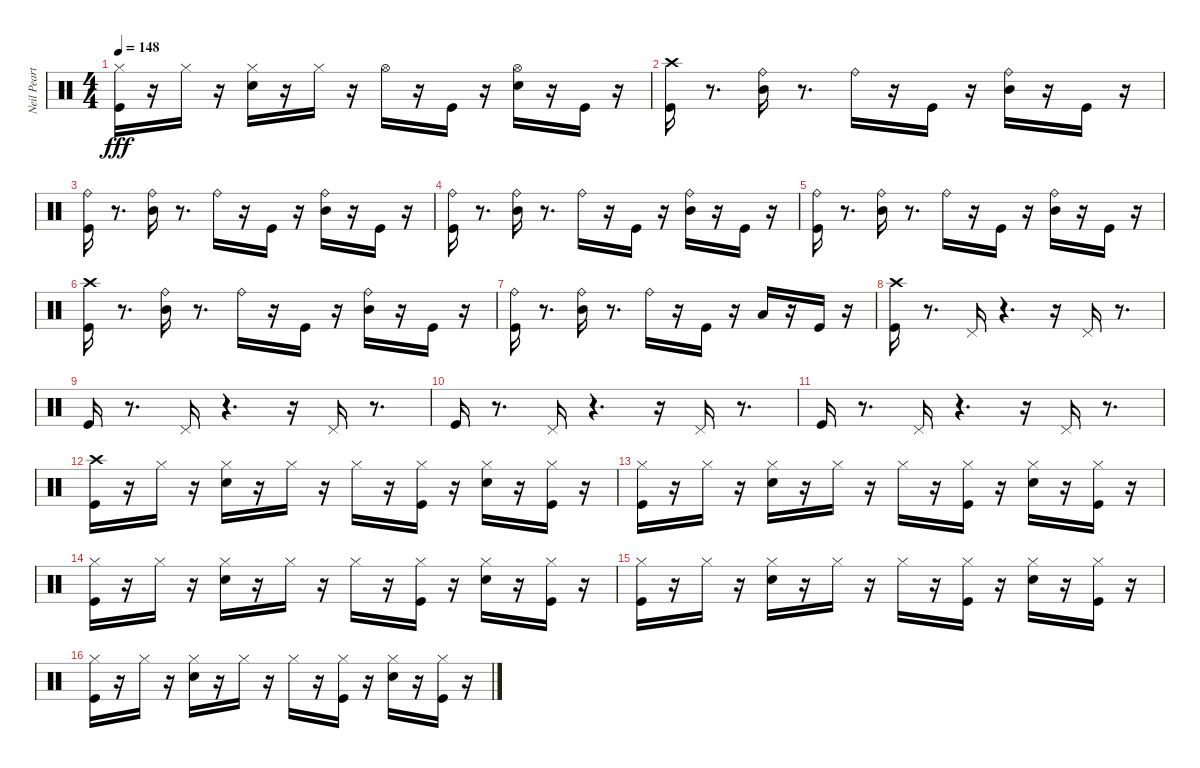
\track ("Neil Peart" "Neil Peart") {instrument percussion}
\staff {score}
\articulation defaults
\ts (4 4)
\tempo 148
\clef neutral
\ks c
("Hi-Hat (closed)" "Kick (hit)").16{dy fff} r.16 "Hi-Hat (closed)".16 r.16 ("Hi-Hat (closed)" "Snare (hit) 2").16 r.16 "Hi-Hat (closed)".16 r.16 "Hi-Hat (open)".16 r.16 "Kick (hit)".16 r.16 ("Hi-Hat (open)" "Snare (hit) 2").16 r.16 "Kick (hit)".16 r.16 |
("Crash high (hit)" "Kick (hit)").16 r.8{d} ("Mid Tom (hit)" "Ride (bell)").16 r.8{d} "Ride (bell)".16 r.16 "Kick (hit)".16 r.16 ("Mid Tom (hit)" "Ride (bell)").16 r.16 "Kick (hit)".16 r.16 |
("Ride (bell)" "Kick (hit)").16 r.8{d} ("Ride (bell)" "Mid Tom (hit)").16 r.8{d} "Ride (bell)".16 r.16 "Kick (hit)".16 r.16 ("Ride (bell)" "Mid Tom (hit)").16 r.16 "Kick (hit)".16 r.16 |
("Ride (bell)" "Kick (hit)").16 r.8{d} ("Ride (bell)" "Mid Tom (hit)").16 r.8{d} "Ride (bell)".16 r.16 "Kick (hit)".16 r.16 ("Ride (bell)" "Mid Tom (hit)").16 r.16 "Kick (hit)".16 r.16 |
("Ride (bell)" "Kick (hit)").16 r.8{d} ("Ride (bell)" "Mid Tom (hit)").16 r.8{d} "Ride (bell)".16 r.16 "Kick (hit)".16 r.16 ("Ride (bell)" "Mid Tom (hit)").16 r.16 "Kick (hit)".16 r.16 |
("Crash high (hit)" "Kick (hit)").16 r.8{d} ("Mid Tom (hit)" "Ride (bell)").16 r.8{d} "Ride (bell)".16 r.16 "Kick (hit)".16 r.16 ("Mid Tom (hit)" "Ride (bell)").16 r.16 "Kick (hit)".16 r.16 |
("Ride (bell)" "Kick (hit)").16 r.8{d} ("Ride (bell)" "Mid Tom (hit)").16 r.8{d} "Ride (bell)".16 r.16 "Kick (hit)".16 r.16 "Low Tom (hit)".16 r.16 "Kick (hit)".16 r.16 |
("Crash high (hit)" "Kick (hit)").16 r.8{d} "Pedal Hi-Hat (hit)".16 r.4{d} r.16 "Pedal Hi-Hat (hit)".16 r.8{d} |
"Kick (hit)".16 r.8{d} "Pedal Hi-Hat (hit)".16 r.4{d} r.16 "Pedal Hi-Hat (hit)".16 r.8{d} |
"Kick (hit)".16 r.8{d} "Pedal Hi-Hat (hit)".16 r.4{d} r.16 "Pedal Hi-Hat (hit)".16 r.8{d} |
"Kick (hit)".16 r.8{d} "Pedal Hi-Hat (hit)".16 r.4{d} r.16 "Pedal Hi-Hat (hit)".16 r.8{d} |
("Crash high (hit)" "Kick (hit)").16 r.16 "Hi-Hat (closed)".16 r.16 ("Hi-Hat (closed)" "Snare (hit) 2").16 r.16 "Hi-Hat (closed)".16 r.16 "Hi-Hat (closed)".16 r.16 ("Hi-Hat (closed)" "Kick (hit)").16 r.16 ("Hi-Hat (closed)" "Snare (hit) 2").16 r.16 ("Hi-Hat (closed)" "Kick (hit)").16 r.16 |
("Hi-Hat (closed)" "Kick (hit)").16 r.16 "Hi-Hat (closed)".16 r.16 ("Hi-Hat (closed)" "Snare (hit) 2").16 r.16 "Hi-Hat (closed)".16 r.16 "Hi-Hat (closed)".16 r.16 ("Hi-Hat (closed)" "Kick (hit)").16 r.16 ("Hi-Hat (closed)" "Snare (hit) 2").16 r.16 ("Hi-Hat (closed)" "Kick (hit)").16 r.16 |
("Hi-Hat (closed)" "Kick (hit)").16 r.16 "Hi-Hat (closed)".16 r.16 ("Hi-Hat (closed)" "Snare (hit) 2").16 r.16 "Hi-Hat (closed)".16 r.16 "Hi-Hat (closed)".16 r.16 ("Hi-Hat (closed)" "Kick (hit)").16 r.16 ("Hi-Hat (closed)" "Snare (hit) 2").16 r.16 ("Hi-Hat (closed)" "Kick (hit)").16 r.16 |
("Hi-Hat (closed)" "Kick (hit)").16 r.16 "Hi-Hat (closed)".16 r.16 ("Hi-Hat (closed)" "Snare (hit) 2").16 r.16 "Hi-Hat (closed)".16 r.16 "Hi-Hat (closed)".16 r.16 ("Hi-Hat (closed)" "Kick (hit)").16 r.16 ("Hi-Hat (closed)" "Snare (hit) 2").16 r.16 ("Hi-Hat (closed)" "Kick (hit)").16 r.16 |
("Hi-Hat (closed)" "Kick (hit)").16 r.16 "Hi-Hat (closed)".16 r.16 ("Hi-Hat (closed)" "Snare (hit) 2").16 r.16 "Hi-Hat (closed)".16 r.16 "Hi-Hat (closed)".16 r.16 ("Hi-Hat (closed)" "Kick (hit)").16 r.16 ("Hi-Hat (closed)" "Snare (hit) 2").16 r.16 ("Hi-Hat (closed)" "Kick (hit)").16 r.16
